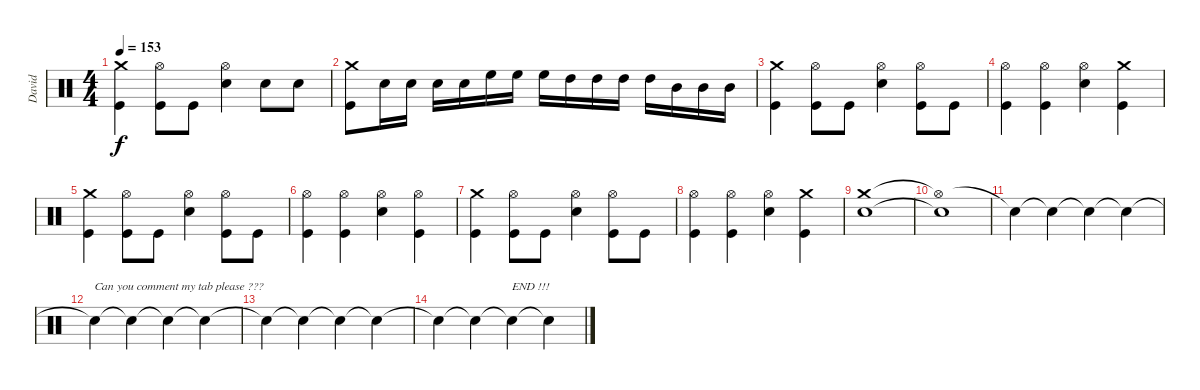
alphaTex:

\track ("David" "David") {instrument percussion}
\staff {score}
\articulation defaults
\ts (4 4)
\tempo 153
\clef neutral
\ks c
("Crash medium (hit)" "Kick (hit)").4{dy f} ("Hi-Hat (open)" "Kick (hit)").8 "Kick (hit)".8 ("Hi-Hat (open)" "Snare (hit) 2").4 "Snare (hit) 2".8 "Snare (hit) 2".8 |
("Crash medium (hit)" "Kick (hit)").8 "Snare (hit) 2".16 "Snare (hit) 2".16 "Snare (hit) 2".16 "Snare (hit) 2".16 "High Floor Tom (hit)".16 "High Floor Tom (hit)".16 "High Floor Tom (hit)".16 "High Tom (hit)".16 "High Tom (hit)".16 "High Tom (hit)".16 "High Tom (hit)".16 "Mid Tom (hit)".16 "Mid Tom (hit)".16 "Mid Tom (hit)".16 |
("Crash medium (hit)" "Kick (hit)").4 ("Hi-Hat (open)" "Kick (hit)").8 "Kick (hit)".8 ("Hi-Hat (open)" "Snare (hit) 2").4 ("Hi-Hat (open)" "Kick (hit)").8 "Kick (hit)".8 |
("Hi-Hat (open)" "Kick (hit)").4 ("Hi-Hat (open)" "Kick (hit)").4 ("Hi-Hat (open)" "Snare (hit) 2").4 ("Crash medium (hit)" "Kick (hit)").4 |
("Crash medium (hit)" "Kick (hit)").4 ("Hi-Hat (open)" "Kick (hit)").8 "Kick (hit)".8 ("Hi-Hat (open)" "Snare (hit) 2").4 ("Hi-Hat (open)" "Kick (hit)").8 "Kick (hit)".8 |
("Hi-Hat (open)" "Kick (hit)").4 ("Hi-Hat (open)" "Kick (hit)").4 ("Hi-Hat (open)" "Snare (hit) 2").4 ("Hi-Hat (open)" "Kick (hit)").4 |
("Crash medium (hit)" "Kick (hit)").4 ("Hi-Hat (open)" "Kick (hit)").8 "Kick (hit)".8 ("Hi-Hat (open)" "Snare (hit) 2").4 ("Hi-Hat (open)" "Kick (hit)").8 "Kick (hit)".8 |
("Hi-Hat (open)" "Kick (hit)").4 ("Hi-Hat (open)" "Kick (hit)").4 ("Hi-Hat (open)" "Snare (hit) 2").4 ("Crash medium (hit)" "Kick (hit)").4 |
("Crash medium (hit)" "Snare (hit) 2").1 |
("Hi-Hat (open)"{t} "Snare (hit)"{t}).1 |
"Snare (hit)"{t}.4 "Snare (hit)"{t}.4 "Snare (hit)"{t}.4 "Snare (hit)"{t}.4 |
"Snare (hit)"{t}.4{txt "Can you comment my tab please ???"} "Snare (hit)"{t}.4 "Snare (hit)"{t}.4 "Snare (hit)"{t}.4 |
"Snare (hit)"{t}.4 "Snare (hit)"{t}.4 "Snare (hit)"{t}.4 "Snare (hit)"{t}.4 |
"Snare (hit)"{t}.4 "Snare (hit)"{t}.4 "Snare (hit)"{t}.4{txt "END !!!"} "Snare (hit)"{t}.4
